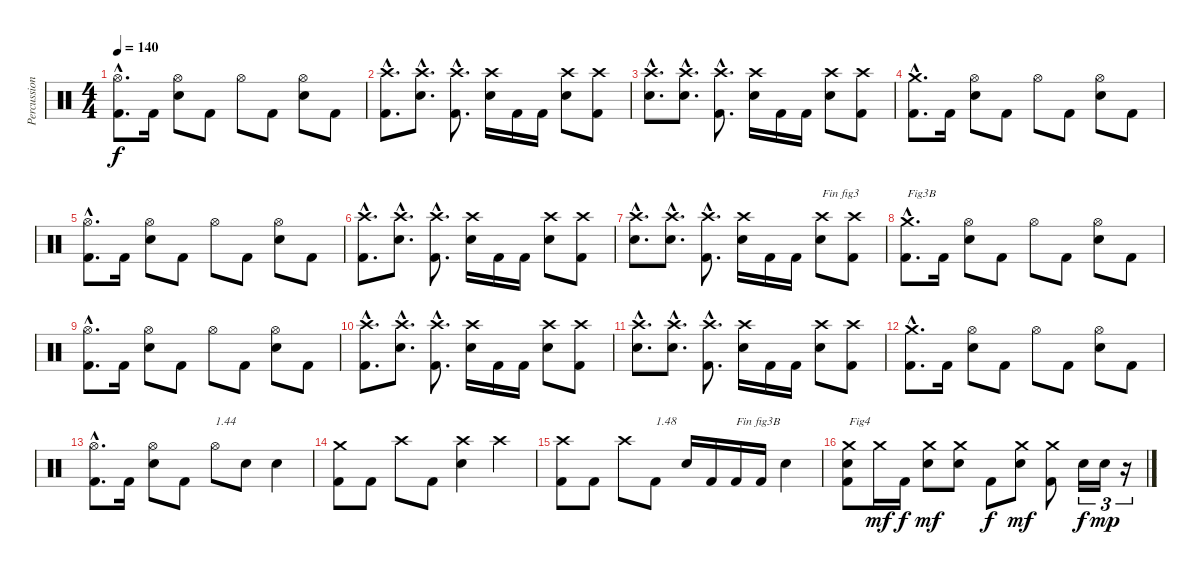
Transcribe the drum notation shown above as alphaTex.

\track ("Percussions" "Percussion") {instrument percussion}
\staff {score}
\articulation defaults
\ts (4 4)
\tempo 140
\clef neutral
\ks c
("Kick (hit) 2"{hac} "Hi-Hat (open)"{hac}).8{d dy f} "Kick (hit) 2".16 ("Electric Snare (hit)" "Hi-Hat (open)").8 "Kick (hit) 2".8 "Hi-Hat (open)".8 "Kick (hit) 2".8 ("Electric Snare (hit)" "Hi-Hat (open)").8 "Kick (hit) 2".8 |
("Kick (hit) 2"{hac} "Crash high (hit)"{hac}).8{d} ("Electric Snare (hit)"{hac} "Crash high (hit)"{hac}).8{d} ("Kick (hit) 2"{hac} "Crash high (hit)"{hac}).8{d} ("Electric Snare (hit)" "Crash high (hit)").16 "Kick (hit) 2".16 "Kick (hit) 2".16 ("Electric Snare (hit)" "Crash high (hit)").8 ("Kick (hit) 2" "Crash high (hit)").8 |
("Electric Snare (hit)"{hac} "Crash high (hit)"{hac}).8{d} ("Electric Snare (hit)"{hac} "Crash high (hit)"{hac}).8{d} ("Kick (hit) 2"{hac} "Crash high (hit)"{hac}).8{d} ("Electric Snare (hit)" "Crash high (hit)").16 "Kick (hit) 2".16 "Kick (hit) 2".16 ("Electric Snare (hit)" "Crash high (hit)").8 ("Kick (hit) 2" "Crash high (hit)").8 |
("Kick (hit) 2"{hac} "Crash medium (hit)"{hac}).8{d} "Kick (hit) 2".16 ("Electric Snare (hit)" "Hi-Hat (open)").8 "Kick (hit) 2".8 "Hi-Hat (open)".8 "Kick (hit) 2".8 ("Electric Snare (hit)" "Hi-Hat (open)").8 "Kick (hit) 2".8 |
("Kick (hit) 2"{hac} "Hi-Hat (open)"{hac}).8{d} "Kick (hit) 2".16 ("Electric Snare (hit)" "Hi-Hat (open)").8 "Kick (hit) 2".8 "Hi-Hat (open)".8 "Kick (hit) 2".8 ("Electric Snare (hit)" "Hi-Hat (open)").8 "Kick (hit) 2".8 |
("Kick (hit) 2"{hac} "Crash high (hit)"{hac}).8{d} ("Electric Snare (hit)"{hac} "Crash high (hit)"{hac}).8{d} ("Kick (hit) 2"{hac} "Crash high (hit)"{hac}).8{d} ("Electric Snare (hit)" "Crash high (hit)").16 "Kick (hit) 2".16 "Kick (hit) 2".16 ("Electric Snare (hit)" "Crash high (hit)").8 ("Kick (hit) 2" "Crash high (hit)").8 |
("Electric Snare (hit)"{hac} "Crash high (hit)"{hac}).8{d} ("Electric Snare (hit)"{hac} "Crash high (hit)"{hac}).8{d} ("Kick (hit) 2"{hac} "Crash high (hit)"{hac}).8{d} ("Electric Snare (hit)" "Crash high (hit)").16 "Kick (hit) 2".16 "Kick (hit) 2".16 ("Electric Snare (hit)" "Crash high (hit)").8{txt "Fin fig3"} ("Kick (hit) 2" "Crash high (hit)").8 |
("Kick (hit) 2"{hac} "Crash medium (hit)"{hac}).8{d txt "Fig3B"} "Kick (hit) 2".16 ("Electric Snare (hit)" "Hi-Hat (open)").8 "Kick (hit) 2".8 "Hi-Hat (open)".8 "Kick (hit) 2".8 ("Electric Snare (hit)" "Hi-Hat (open)").8 "Kick (hit) 2".8 |
("Kick (hit) 2"{hac} "Hi-Hat (open)"{hac}).8{d} "Kick (hit) 2".16 ("Electric Snare (hit)" "Hi-Hat (open)").8 "Kick (hit) 2".8 "Hi-Hat (open)".8 "Kick (hit) 2".8 ("Electric Snare (hit)" "Hi-Hat (open)").8 "Kick (hit) 2".8 |
("Kick (hit) 2"{hac} "Crash high (hit)"{hac}).8{d} ("Electric Snare (hit)"{hac} "Crash high (hit)"{hac}).8{d} ("Kick (hit) 2"{hac} "Crash high (hit)"{hac}).8{d} ("Electric Snare (hit)" "Crash high (hit)").16 "Kick (hit) 2".16 "Kick (hit) 2".16 ("Electric Snare (hit)" "Crash high (hit)").8 ("Kick (hit) 2" "Crash high (hit)").8 |
("Electric Snare (hit)"{hac} "Crash high (hit)"{hac}).8{d} ("Electric Snare (hit)"{hac} "Crash high (hit)"{hac}).8{d} ("Kick (hit) 2"{hac} "Crash high (hit)"{hac}).8{d} ("Electric Snare (hit)" "Crash high (hit)").16 "Kick (hit) 2".16 "Kick (hit) 2".16 ("Electric Snare (hit)" "Crash high (hit)").8 ("Kick (hit) 2" "Crash high (hit)").8 |
("Kick (hit) 2"{hac} "Crash medium (hit)"{hac}).8{d} "Kick (hit) 2".16 ("Electric Snare (hit)" "Hi-Hat (open)").8 "Kick (hit) 2".8 "Hi-Hat (open)".8 "Kick (hit) 2".8 ("Electric Snare (hit)" "Hi-Hat (open)").8 "Kick (hit) 2".8 |
("Kick (hit) 2"{hac} "Hi-Hat (open)"{hac}).8{d} "Kick (hit) 2".16 ("Electric Snare (hit)" "Hi-Hat (open)").8 "Kick (hit) 2".8 "Hi-Hat (open)".8{txt "1.44"} "Electric Snare (hit)".8 "Electric Snare (hit)".4 |
("Kick (hit) 2" "Crash medium (hit)").8 "Kick (hit) 2".8 "Crash high (hit)".8 "Kick (hit) 2".8 ("Electric Snare (hit)" "Crash high (hit)").4 "Crash high (hit)".4 |
("Kick (hit) 2" "Crash high (hit)").8 "Kick (hit) 2".8 "Crash high (hit)".8 "Kick (hit) 2".8{txt "1.48"} "Electric Snare (hit)".16 "Kick (hit) 2".16 "Kick (hit) 2".16{txt "Fin fig3B"} "Kick (hit) 2".16 "Electric Snare (hit)".4 |
("Kick (hit) 2" "Electric Snare (hit)" "Crash medium (hit)").8{txt "Fig4"} "Crash medium (hit)".16{dy mf} "Kick (hit) 2".16{dy f} ("Electric Snare (hit)" "Crash medium (hit)").8{dy mf} ("Electric Snare (hit)" "Crash medium (hit)").8 "Kick (hit) 2".8{dy f} ("Electric Snare (hit)" "Crash medium (hit)").8{dy mf} ("Kick (hit) 2" "Crash medium (hit)").8 "Electric Snare (hit)".16{tu (3 2) dy f} "Electric Snare (hit)".16{tu (3 2) dy mp} r.16{tu (3 2)}
